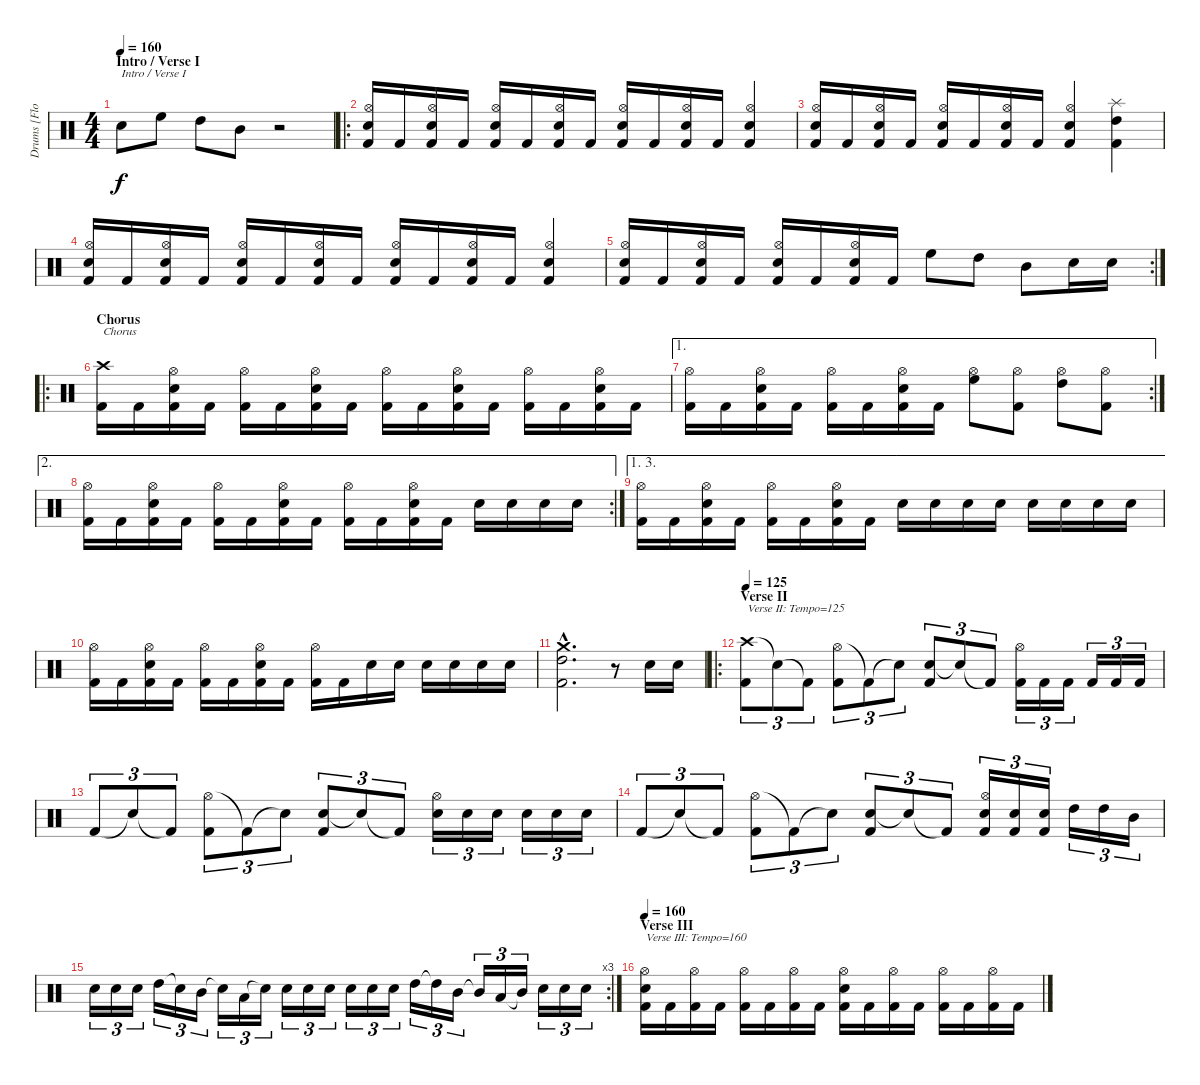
\track ("Drums [Flo Mounier]" "Drums [Flo") {instrument percussion}
\staff {score}
\articulation defaults
\ts (4 4)
\section ("" "Intro / Verse I")
\tempo 160
\clef neutral
\ks c "Electric Snare (hit)".8{txt "Intro / Verse I" dy f} "High Floor Tom (hit)".8 "High Tom (hit)".8 "Mid Tom (hit)".8
r.2 |
\ro
("Hi-Hat (open)" "Electric Snare (hit)" "Kick (hit) 2").16 "Kick (hit) 2".16 ("Hi-Hat (open)" "Electric Snare (hit)" "Kick (hit) 2").16 "Kick (hit) 2".16 ("Hi-Hat (open)" "Electric Snare (hit)" "Kick (hit) 2").16 "Kick (hit) 2".16 ("Hi-Hat (open)" "Electric Snare (hit)" "Kick (hit) 2").16 "Kick (hit) 2".16 ("Hi-Hat (open)" "Electric Snare (hit)" "Kick (hit) 2").16 "Kick (hit) 2".16 ("Hi-Hat (open)" "Electric Snare (hit)" "Kick (hit) 2").16 "Kick (hit) 2".16 ("Hi-Hat (open)" "Electric Snare (hit)" "Kick (hit) 2").4 |
("Hi-Hat (open)" "Electric Snare (hit)" "Kick (hit) 2").16 "Kick (hit) 2".16 ("Hi-Hat (open)" "Electric Snare (hit)" "Kick (hit) 2").16 "Kick (hit) 2".16 ("Hi-Hat (open)" "Electric Snare (hit)" "Kick (hit) 2").16 "Kick (hit) 2".16 ("Hi-Hat (open)" "Electric Snare (hit)" "Kick (hit) 2").16 "Kick (hit) 2".16 ("Hi-Hat (open)" "Electric Snare (hit)" "Kick (hit) 2").4 ("Splash (hit)" "High Tom (hit)" "Kick (hit) 2").4 |
("Hi-Hat (open)" "Electric Snare (hit)" "Kick (hit) 2").16 "Kick (hit) 2".16 ("Hi-Hat (open)" "Electric Snare (hit)" "Kick (hit) 2").16 "Kick (hit) 2".16 ("Hi-Hat (open)" "Electric Snare (hit)" "Kick (hit) 2").16 "Kick (hit) 2".16 ("Hi-Hat (open)" "Electric Snare (hit)" "Kick (hit) 2").16 "Kick (hit) 2".16 ("Hi-Hat (open)" "Electric Snare (hit)" "Kick (hit) 2").16 "Kick (hit) 2".16 ("Hi-Hat (open)" "Electric Snare (hit)" "Kick (hit) 2").16 "Kick (hit) 2".16 ("Hi-Hat (open)" "Electric Snare (hit)" "Kick (hit) 2").4 |
\rc 2
("Hi-Hat (open)" "Electric Snare (hit)" "Kick (hit) 2").16 "Kick (hit) 2".16 ("Hi-Hat (open)" "Electric Snare (hit)" "Kick (hit) 2").16 "Kick (hit) 2".16 ("Hi-Hat (open)" "Electric Snare (hit)" "Kick (hit) 2").16 "Kick (hit) 2".16 ("Hi-Hat (open)" "Electric Snare (hit)" "Kick (hit) 2").16 "Kick (hit) 2".16 "High Floor Tom (hit)".8 "High Tom (hit)".8 "Mid Tom (hit)".8 "Electric Snare (hit)".16 "Electric Snare (hit)".16 |
\ro
\section ("" "Chorus")
("Crash high (hit)" "Kick (hit) 2").16{txt "Chorus"} "Kick (hit) 2".16 ("Hi-Hat (open)" "Electric Snare (hit)" "Kick (hit) 2").16 "Kick (hit) 2".16 ("Hi-Hat (open)" "Kick (hit) 2").16 "Kick (hit) 2".16 ("Hi-Hat (open)" "Electric Snare (hit)" "Kick (hit) 2").16 "Kick (hit) 2".16 ("Hi-Hat (open)" "Kick (hit) 2").16 "Kick (hit) 2".16 ("Hi-Hat (open)" "Electric Snare (hit)" "Kick (hit) 2").16 "Kick (hit) 2".16 ("Hi-Hat (open)" "Kick (hit) 2").16 "Kick (hit) 2".16 ("Hi-Hat (open)" "Electric Snare (hit)" "Kick (hit) 2").16 "Kick (hit) 2".16 |
\ae 1
\rc 2
("Hi-Hat (open)" "Kick (hit) 2").16 "Kick (hit) 2".16 ("Hi-Hat (open)" "Electric Snare (hit)" "Kick (hit) 2").16 "Kick (hit) 2".16 ("Hi-Hat (open)" "Kick (hit) 2").16 "Kick (hit) 2".16 ("Hi-Hat (open)" "Electric Snare (hit)" "Kick (hit) 2").16 "Kick (hit) 2".16 ("Hi-Hat (open)" "High Floor Tom (hit)").8 ("Hi-Hat (open)" "Kick (hit) 2").8 ("Hi-Hat (open)" "High Tom (hit)").8 ("Hi-Hat (open)" "Kick (hit) 2").8 |
\ae 2
\rc 2
("Hi-Hat (open)" "Kick (hit) 2").16 "Kick (hit) 2".16 ("Hi-Hat (open)" "Electric Snare (hit)" "Kick (hit) 2").16 "Kick (hit) 2".16 ("Hi-Hat (open)" "Kick (hit) 2").16 "Kick (hit) 2".16 ("Hi-Hat (open)" "Electric Snare (hit)" "Kick (hit) 2").16 "Kick (hit) 2".16 ("Hi-Hat (open)" "Kick (hit) 2").16 "Kick (hit) 2".16 ("Hi-Hat (open)" "Electric Snare (hit)" "Kick (hit) 2").16 "Kick (hit) 2".16 "Electric Snare (hit)".16 "Electric Snare (hit)".16 "Electric Snare (hit)".16 "Electric Snare (hit)".16 |
\ae (1 3)
("Hi-Hat (open)" "Kick (hit) 2").16 "Kick (hit) 2".16 ("Hi-Hat (open)" "Electric Snare (hit)" "Kick (hit) 2").16 "Kick (hit) 2".16 ("Hi-Hat (open)" "Kick (hit) 2").16 "Kick (hit) 2".16 ("Hi-Hat (open)" "Electric Snare (hit)" "Kick (hit) 2").16 "Kick (hit) 2".16 "Electric Snare (hit)".16 "Electric Snare (hit)".16 "Electric Snare (hit)".16 "Electric Snare (hit)".16 "Electric Snare (hit)".16 "Electric Snare (hit)".16 "Electric Snare (hit)".16 "Electric Snare (hit)".16 |
("Hi-Hat (open)" "Kick (hit) 2").16 "Kick (hit) 2".16 ("Hi-Hat (open)" "Electric Snare (hit)" "Kick (hit) 2").16 "Kick (hit) 2".16 ("Hi-Hat (open)" "Kick (hit) 2").16 "Kick (hit) 2".16 ("Hi-Hat (open)" "Electric Snare (hit)" "Kick (hit) 2").16 "Kick (hit) 2".16 ("Hi-Hat (open)" "Kick (hit) 2").16 "Kick (hit) 2".16 "Electric Snare (hit)".16 "Electric Snare (hit)".16 "Electric Snare (hit)".16 "Electric Snare (hit)".16 "Electric Snare (hit)".16 "Electric Snare (hit)".16 |
("Crash medium (hit)"{hac} "High Tom (hit)"{hac} "Kick (hit) 2"{hac}).2{d} r.8 "Electric Snare (hit)".16 "Electric Snare (hit)".16 |
\ro
\section ("" "Verse II")
\tempo 125
("Crash high (hit)" "Kick (hit) 2").8{tu (3 2) txt "Verse II: Tempo=125"} "Snare (hit)"{t}.8{tu (3 2)} "Kick (hit) 2"{t}.8{tu (3 2)} ("Hi-Hat (open)" "Kick (hit) 2").8{tu (3 2)} "Kick (hit) 2"{t}.8{tu (3 2)} "Snare (hit)"{t}.8{tu (3 2)} ("Electric Snare (hit)" "Kick (hit) 2").8{tu (3 2)} "Snare (hit)"{t}.8{tu (3 2)} "Kick (hit) 2"{t}.8{tu (3 2)} ("Hi-Hat (open)" "Kick (hit) 2").16{tu (3 2)} "Kick (hit) 2".16{tu (3 2)} "Kick (hit) 2".16{tu (3 2)} "Kick (hit) 2".16{tu (3 2)} "Kick (hit) 2".16{tu (3 2)} "Kick (hit) 2".16{tu (3 2)} |
"Kick (hit) 2".8{tu (3 2)} "Snare (hit)"{t}.8{tu (3 2)} "Kick (hit) 2"{t}.8{tu (3 2)} ("Hi-Hat (open)" "Kick (hit) 2").8{tu (3 2)} "Kick (hit) 2"{t}.8{tu (3 2)} "Snare (hit)"{t}.8{tu (3 2)} ("Electric Snare (hit)" "Kick (hit) 2").8{tu (3 2)} "Snare (hit)"{t}.8{tu (3 2)} "Kick (hit) 2"{t}.8{tu (3 2)} ("Hi-Hat (open)" "Electric Snare (hit)").16{tu (3 2)} "Electric Snare (hit)".16{tu (3 2)} "Electric Snare (hit)".16{tu (3 2)} "Electric Snare (hit)".16{tu (3 2)} "Electric Snare (hit)".16{tu (3 2)} "Electric Snare (hit)".16{tu (3 2)} |
"Kick (hit) 2".8{tu (3 2)} "Snare (hit)"{t}.8{tu (3 2)} "Kick (hit) 2"{t}.8{tu (3 2)} ("Hi-Hat (open)" "Kick (hit) 2").8{tu (3 2)} "Kick (hit) 2"{t}.8{tu (3 2)} "Snare (hit)"{t}.8{tu (3 2)} ("Electric Snare (hit)" "Kick (hit) 2").8{tu (3 2)} "Snare (hit)"{t}.8{tu (3 2)} "Kick (hit) 2"{t}.8{tu (3 2)} ("Hi-Hat (open)" "Electric Snare (hit)" "Kick (hit) 2").16{tu (3 2)} ("Electric Snare (hit)" "Kick (hit) 2").16{tu (3 2)} ("Electric Snare (hit)" "Kick (hit) 2").16{tu (3 2)} "High Tom (hit)".16{tu (3 2)} "High Tom (hit)".16{tu (3 2)} "Mid Tom (hit)".16{tu (3 2)} |
\rc 3 "Electric Snare (hit)".16{tu (3 2)} "Electric Snare (hit)".16{tu (3 2)} "Electric Snare (hit)".16{tu (3 2)} "High Tom (hit)".16{tu (3 2)} "Snare (hit)"{t}.16{tu (3 2)} "Mid Tom (hit)".16{tu (3 2)} "Snare (hit)"{t}.16{tu (3 2)} "Low Tom (hit)".16{tu (3 2)} "Snare (hit)"{t}.16{tu (3 2)} "Electric Snare (hit)".16{tu (3 2)} "Electric Snare (hit)".16{tu (3 2)} "Electric Snare (hit)".16{tu (3 2)} "Electric Snare (hit)".16{tu (3 2)} "Electric Snare (hit)".16{tu (3 2)} "Electric Snare (hit)".16{tu (3 2)} "High Tom (hit)".16{tu (3 2)} "High Tom (hit)"{t}.16{tu (3 2)} "Mid Tom (hit)".16{tu (3 2)} "Mid Tom (hit)"{t}.16{tu (3 2)} "Low Tom (hit)".16{tu (3 2)} "Mid Tom (hit)"{t}.16{tu (3 2)} "Electric Snare (hit)".16{tu (3 2)} "Electric Snare (hit)".16{tu (3 2)} "Electric Snare (hit)".16{tu (3 2)}
|
\section ("" "Verse III")
\tempo 160
("Hi-Hat (open)" "Electric Snare (hit)" "Kick (hit) 2").16{txt "Verse III: Tempo=160"} "Kick (hit) 2".16 ("Hi-Hat (open)" "Kick (hit) 2").16 "Kick (hit) 2".16 ("Hi-Hat (open)" "Kick (hit) 2").16 "Kick (hit) 2".16 ("Hi-Hat (open)" "Kick (hit) 2").16 "Kick (hit) 2".16 ("Hi-Hat (open)" "Electric Snare (hit)" "Kick (hit) 2").16 "Kick (hit) 2".16 ("Hi-Hat (open)" "Kick (hit) 2").16 "Kick (hit) 2".16 ("Hi-Hat (open)" "Kick (hit) 2").16 "Kick (hit) 2".16 ("Hi-Hat (open)" "Kick (hit) 2").16 "Kick (hit) 2".16
